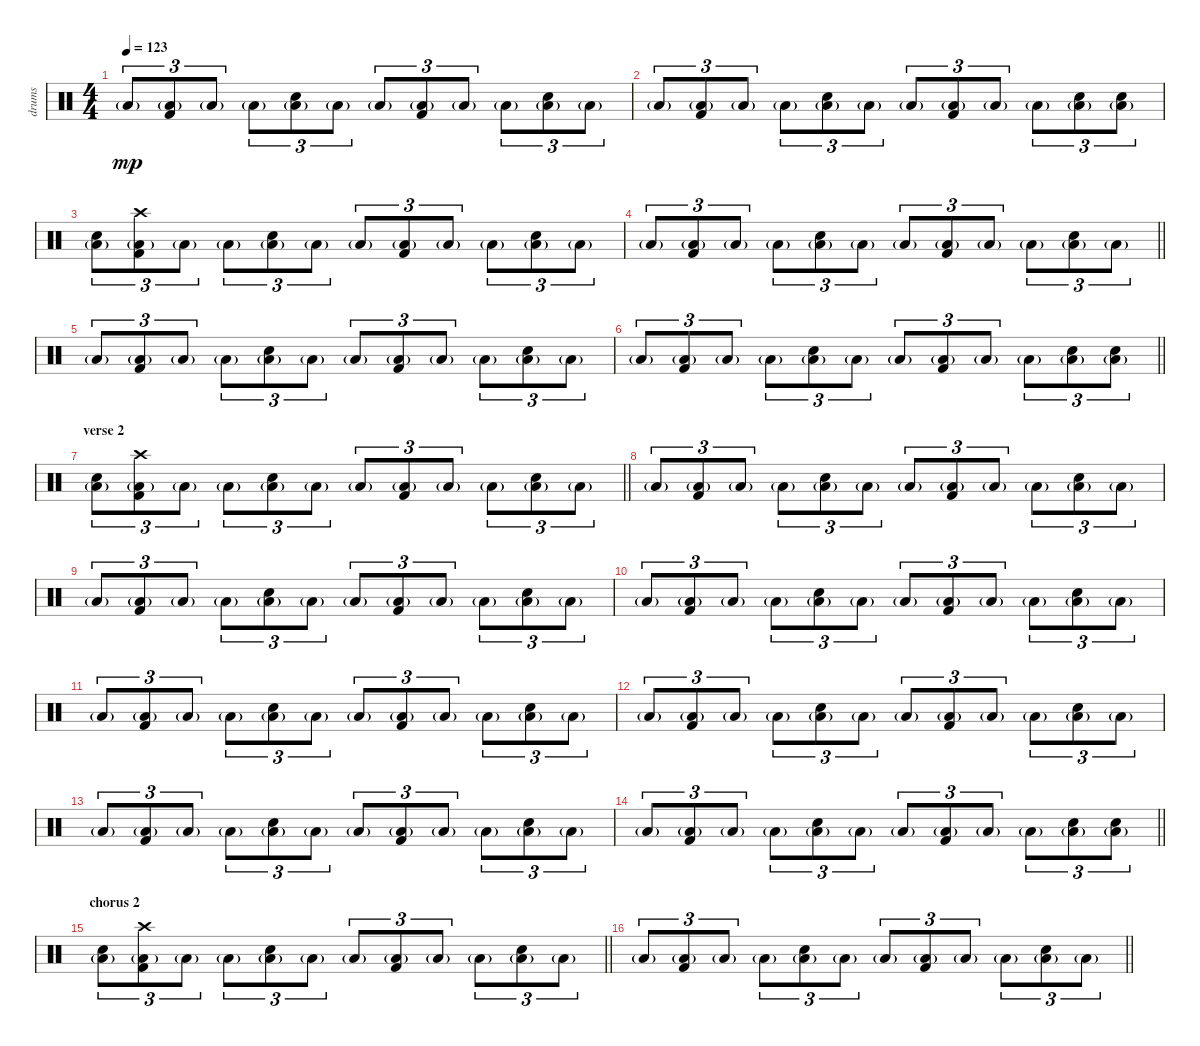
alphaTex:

\track ("drums" "drums") {instrument percussion}
\staff {score}
\articulation defaults
\ts (4 4)
\tempo 123
\clef neutral
\ks c "Low Floor Tom (hit)"{g}.8{tu (3 2) dy mp}
("Low Floor Tom (hit)"{g} "Kick (hit) 2").8{tu (3 2)} "Low Floor Tom (hit)"{g}.8{tu (3 2)} "Low Floor Tom (hit)"{g}.8{tu (3 2)} ("Low Floor Tom (hit)"{g} "Electric Snare (hit)").8{tu (3 2)} "Low Floor Tom (hit)"{g}.8{tu (3 2)} "Low Floor Tom (hit)"{g}.8{tu (3 2)} ("Low Floor Tom (hit)"{g} "Kick (hit) 2").8{tu (3 2)} "Low Floor Tom (hit)"{g}.8{tu (3 2)} "Low Floor Tom (hit)"{g}.8{tu (3 2)} ("Low Floor Tom (hit)"{g} "Electric Snare (hit)").8{tu (3 2)} "Low Floor Tom (hit)"{g}.8{tu (3 2)} |
"Low Floor Tom (hit)"{g}.8{tu (3 2)} ("Low Floor Tom (hit)"{g} "Kick (hit) 2").8{tu (3 2)} "Low Floor Tom (hit)"{g}.8{tu (3 2)} "Low Floor Tom (hit)"{g}.8{tu (3 2)} ("Low Floor Tom (hit)"{g} "Electric Snare (hit)").8{tu (3 2)} "Low Floor Tom (hit)"{g}.8{tu (3 2)} "Low Floor Tom (hit)"{g}.8{tu (3 2)} ("Low Floor Tom (hit)"{g} "Kick (hit) 2").8{tu (3 2)} "Low Floor Tom (hit)"{g}.8{tu (3 2)} "Low Floor Tom (hit)"{g}.8{tu (3 2)} ("Low Floor Tom (hit)"{g} "Electric Snare (hit)").8{tu (3 2)} ("Low Floor Tom (hit)"{g} "Electric Snare (hit)").8{tu (3 2)} |
("Low Floor Tom (hit)"{g} "Electric Snare (hit)").8{tu (3 2)} ("Low Floor Tom (hit)"{g} "Kick (hit) 2" "Crash high (hit)").8{tu (3 2)} "Low Floor Tom (hit)"{g}.8{tu (3 2)} "Low Floor Tom (hit)"{g}.8{tu (3 2)} ("Low Floor Tom (hit)"{g} "Electric Snare (hit)").8{tu (3 2)} "Low Floor Tom (hit)"{g}.8{tu (3 2)} "Low Floor Tom (hit)"{g}.8{tu (3 2)} ("Low Floor Tom (hit)"{g} "Kick (hit) 2").8{tu (3 2)} "Low Floor Tom (hit)"{g}.8{tu (3 2)} "Low Floor Tom (hit)"{g}.8{tu (3 2)} ("Low Floor Tom (hit)"{g} "Electric Snare (hit)").8{tu (3 2)} "Low Floor Tom (hit)"{g}.8{tu (3 2)} |
\barLineRight lightlight "Low Floor Tom (hit)"{g}.8{tu (3 2)}
("Low Floor Tom (hit)"{g} "Kick (hit) 2").8{tu (3 2)} "Low Floor Tom (hit)"{g}.8{tu (3 2)} "Low Floor Tom (hit)"{g}.8{tu (3 2)} ("Low Floor Tom (hit)"{g} "Electric Snare (hit)").8{tu (3 2)} "Low Floor Tom (hit)"{g}.8{tu (3 2)} "Low Floor Tom (hit)"{g}.8{tu (3 2)} ("Low Floor Tom (hit)"{g} "Kick (hit) 2").8{tu (3 2)} "Low Floor Tom (hit)"{g}.8{tu (3 2)} "Low Floor Tom (hit)"{g}.8{tu (3 2)} ("Low Floor Tom (hit)"{g} "Electric Snare (hit)").8{tu (3 2)} "Low Floor Tom (hit)"{g}.8{tu (3 2)} |
"Low Floor Tom (hit)"{g}.8{tu (3 2)} ("Low Floor Tom (hit)"{g} "Kick (hit) 2").8{tu (3 2)} "Low Floor Tom (hit)"{g}.8{tu (3 2)} "Low Floor Tom (hit)"{g}.8{tu (3 2)} ("Low Floor Tom (hit)"{g} "Electric Snare (hit)").8{tu (3 2)} "Low Floor Tom (hit)"{g}.8{tu (3 2)} "Low Floor Tom (hit)"{g}.8{tu (3 2)} ("Low Floor Tom (hit)"{g} "Kick (hit) 2").8{tu (3 2)} "Low Floor Tom (hit)"{g}.8{tu (3 2)} "Low Floor Tom (hit)"{g}.8{tu (3 2)} ("Low Floor Tom (hit)"{g} "Electric Snare (hit)").8{tu (3 2)} "Low Floor Tom (hit)"{g}.8{tu (3 2)} |
\barLineRight lightlight "Low Floor Tom (hit)"{g}.8{tu (3 2)}
("Low Floor Tom (hit)"{g} "Kick (hit) 2").8{tu (3 2)} "Low Floor Tom (hit)"{g}.8{tu (3 2)} "Low Floor Tom (hit)"{g}.8{tu (3 2)} ("Low Floor Tom (hit)"{g} "Electric Snare (hit)").8{tu (3 2)} "Low Floor Tom (hit)"{g}.8{tu (3 2)} "Low Floor Tom (hit)"{g}.8{tu (3 2)} ("Low Floor Tom (hit)"{g} "Kick (hit) 2").8{tu (3 2)} "Low Floor Tom (hit)"{g}.8{tu (3 2)} "Low Floor Tom (hit)"{g}.8{tu (3 2)} ("Low Floor Tom (hit)"{g} "Electric Snare (hit)").8{tu (3 2)} ("Low Floor Tom (hit)"{g} "Electric Snare (hit)").8{tu (3 2)} |
\section ("" "verse 2")
\barLineRight lightlight
("Low Floor Tom (hit)"{g} "Electric Snare (hit)").8{tu (3 2)} ("Low Floor Tom (hit)"{g} "Kick (hit) 2" "Crash high (hit)").8{tu (3 2)} "Low Floor Tom (hit)"{g}.8{tu (3 2)} "Low Floor Tom (hit)"{g}.8{tu (3 2)} ("Low Floor Tom (hit)"{g} "Electric Snare (hit)").8{tu (3 2)} "Low Floor Tom (hit)"{g}.8{tu (3 2)} "Low Floor Tom (hit)"{g}.8{tu (3 2)} ("Low Floor Tom (hit)"{g} "Kick (hit) 2").8{tu (3 2)} "Low Floor Tom (hit)"{g}.8{tu (3 2)} "Low Floor Tom (hit)"{g}.8{tu (3 2)} ("Low Floor Tom (hit)"{g} "Electric Snare (hit)").8{tu (3 2)} "Low Floor Tom (hit)"{g}.8{tu (3 2)} |
"Low Floor Tom (hit)"{g}.8{tu (3 2)} ("Low Floor Tom (hit)"{g} "Kick (hit) 2").8{tu (3 2)} "Low Floor Tom (hit)"{g}.8{tu (3 2)} "Low Floor Tom (hit)"{g}.8{tu (3 2)} ("Low Floor Tom (hit)"{g} "Electric Snare (hit)").8{tu (3 2)} "Low Floor Tom (hit)"{g}.8{tu (3 2)} "Low Floor Tom (hit)"{g}.8{tu (3 2)} ("Low Floor Tom (hit)"{g} "Kick (hit) 2").8{tu (3 2)} "Low Floor Tom (hit)"{g}.8{tu (3 2)} "Low Floor Tom (hit)"{g}.8{tu (3 2)} ("Low Floor Tom (hit)"{g} "Electric Snare (hit)").8{tu (3 2)} "Low Floor Tom (hit)"{g}.8{tu (3 2)} |
"Low Floor Tom (hit)"{g}.8{tu (3 2)} ("Low Floor Tom (hit)"{g} "Kick (hit) 2").8{tu (3 2)} "Low Floor Tom (hit)"{g}.8{tu (3 2)} "Low Floor Tom (hit)"{g}.8{tu (3 2)} ("Low Floor Tom (hit)"{g} "Electric Snare (hit)").8{tu (3 2)} "Low Floor Tom (hit)"{g}.8{tu (3 2)} "Low Floor Tom (hit)"{g}.8{tu (3 2)} ("Low Floor Tom (hit)"{g} "Kick (hit) 2").8{tu (3 2)} "Low Floor Tom (hit)"{g}.8{tu (3 2)} "Low Floor Tom (hit)"{g}.8{tu (3 2)} ("Low Floor Tom (hit)"{g} "Electric Snare (hit)").8{tu (3 2)} "Low Floor Tom (hit)"{g}.8{tu (3 2)} |
"Low Floor Tom (hit)"{g}.8{tu (3 2)} ("Low Floor Tom (hit)"{g} "Kick (hit) 2").8{tu (3 2)} "Low Floor Tom (hit)"{g}.8{tu (3 2)} "Low Floor Tom (hit)"{g}.8{tu (3 2)} ("Low Floor Tom (hit)"{g} "Electric Snare (hit)").8{tu (3 2)} "Low Floor Tom (hit)"{g}.8{tu (3 2)} "Low Floor Tom (hit)"{g}.8{tu (3 2)} ("Low Floor Tom (hit)"{g} "Kick (hit) 2").8{tu (3 2)} "Low Floor Tom (hit)"{g}.8{tu (3 2)} "Low Floor Tom (hit)"{g}.8{tu (3 2)} ("Low Floor Tom (hit)"{g} "Electric Snare (hit)").8{tu (3 2)} "Low Floor Tom (hit)"{g}.8{tu (3 2)} |
"Low Floor Tom (hit)"{g}.8{tu (3 2)} ("Low Floor Tom (hit)"{g} "Kick (hit) 2").8{tu (3 2)} "Low Floor Tom (hit)"{g}.8{tu (3 2)} "Low Floor Tom (hit)"{g}.8{tu (3 2)} ("Low Floor Tom (hit)"{g} "Electric Snare (hit)").8{tu (3 2)} "Low Floor Tom (hit)"{g}.8{tu (3 2)} "Low Floor Tom (hit)"{g}.8{tu (3 2)} ("Low Floor Tom (hit)"{g} "Kick (hit) 2").8{tu (3 2)} "Low Floor Tom (hit)"{g}.8{tu (3 2)} "Low Floor Tom (hit)"{g}.8{tu (3 2)} ("Low Floor Tom (hit)"{g} "Electric Snare (hit)").8{tu (3 2)} "Low Floor Tom (hit)"{g}.8{tu (3 2)} |
"Low Floor Tom (hit)"{g}.8{tu (3 2)} ("Low Floor Tom (hit)"{g} "Kick (hit) 2").8{tu (3 2)} "Low Floor Tom (hit)"{g}.8{tu (3 2)} "Low Floor Tom (hit)"{g}.8{tu (3 2)} ("Low Floor Tom (hit)"{g} "Electric Snare (hit)").8{tu (3 2)} "Low Floor Tom (hit)"{g}.8{tu (3 2)} "Low Floor Tom (hit)"{g}.8{tu (3 2)} ("Low Floor Tom (hit)"{g} "Kick (hit) 2").8{tu (3 2)} "Low Floor Tom (hit)"{g}.8{tu (3 2)} "Low Floor Tom (hit)"{g}.8{tu (3 2)} ("Low Floor Tom (hit)"{g} "Electric Snare (hit)").8{tu (3 2)} "Low Floor Tom (hit)"{g}.8{tu (3 2)} |
"Low Floor Tom (hit)"{g}.8{tu (3 2)} ("Low Floor Tom (hit)"{g} "Kick (hit) 2").8{tu (3 2)} "Low Floor Tom (hit)"{g}.8{tu (3 2)} "Low Floor Tom (hit)"{g}.8{tu (3 2)} ("Low Floor Tom (hit)"{g} "Electric Snare (hit)").8{tu (3 2)} "Low Floor Tom (hit)"{g}.8{tu (3 2)} "Low Floor Tom (hit)"{g}.8{tu (3 2)} ("Low Floor Tom (hit)"{g} "Kick (hit) 2").8{tu (3 2)} "Low Floor Tom (hit)"{g}.8{tu (3 2)} "Low Floor Tom (hit)"{g}.8{tu (3 2)} ("Low Floor Tom (hit)"{g} "Electric Snare (hit)").8{tu (3 2)} "Low Floor Tom (hit)"{g}.8{tu (3 2)} |
\barLineRight lightlight "Low Floor Tom (hit)"{g}.8{tu (3 2)}
("Low Floor Tom (hit)"{g} "Kick (hit) 2").8{tu (3 2)} "Low Floor Tom (hit)"{g}.8{tu (3 2)} "Low Floor Tom (hit)"{g}.8{tu (3 2)} ("Low Floor Tom (hit)"{g} "Electric Snare (hit)").8{tu (3 2)} "Low Floor Tom (hit)"{g}.8{tu (3 2)} "Low Floor Tom (hit)"{g}.8{tu (3 2)} ("Low Floor Tom (hit)"{g} "Kick (hit) 2").8{tu (3 2)} "Low Floor Tom (hit)"{g}.8{tu (3 2)} "Low Floor Tom (hit)"{g}.8{tu (3 2)} ("Low Floor Tom (hit)"{g} "Electric Snare (hit)").8{tu (3 2)} ("Low Floor Tom (hit)"{g} "Electric Snare (hit)").8{tu (3 2)} |
\section ("" "chorus 2")
\barLineRight lightlight
("Low Floor Tom (hit)"{g} "Electric Snare (hit)").8{tu (3 2)} ("Low Floor Tom (hit)"{g} "Kick (hit) 2" "Crash high (hit)").8{tu (3 2)} "Low Floor Tom (hit)"{g}.8{tu (3 2)} "Low Floor Tom (hit)"{g}.8{tu (3 2)} ("Low Floor Tom (hit)"{g} "Electric Snare (hit)").8{tu (3 2)} "Low Floor Tom (hit)"{g}.8{tu (3 2)} "Low Floor Tom (hit)"{g}.8{tu (3 2)} ("Low Floor Tom (hit)"{g} "Kick (hit) 2").8{tu (3 2)} "Low Floor Tom (hit)"{g}.8{tu (3 2)} "Low Floor Tom (hit)"{g}.8{tu (3 2)} ("Low Floor Tom (hit)"{g} "Electric Snare (hit)").8{tu (3 2)} "Low Floor Tom (hit)"{g}.8{tu (3 2)} |
\barLineRight lightlight "Low Floor Tom (hit)"{g}.8{tu (3 2)}
("Low Floor Tom (hit)"{g} "Kick (hit) 2").8{tu (3 2)} "Low Floor Tom (hit)"{g}.8{tu (3 2)} "Low Floor Tom (hit)"{g}.8{tu (3 2)} ("Low Floor Tom (hit)"{g} "Electric Snare (hit)").8{tu (3 2)} "Low Floor Tom (hit)"{g}.8{tu (3 2)} "Low Floor Tom (hit)"{g}.8{tu (3 2)} ("Low Floor Tom (hit)"{g} "Kick (hit) 2").8{tu (3 2)} "Low Floor Tom (hit)"{g}.8{tu (3 2)} "Low Floor Tom (hit)"{g}.8{tu (3 2)} ("Low Floor Tom (hit)"{g} "Electric Snare (hit)").8{tu (3 2)} "Low Floor Tom (hit)"{g}.8{tu (3 2)}
